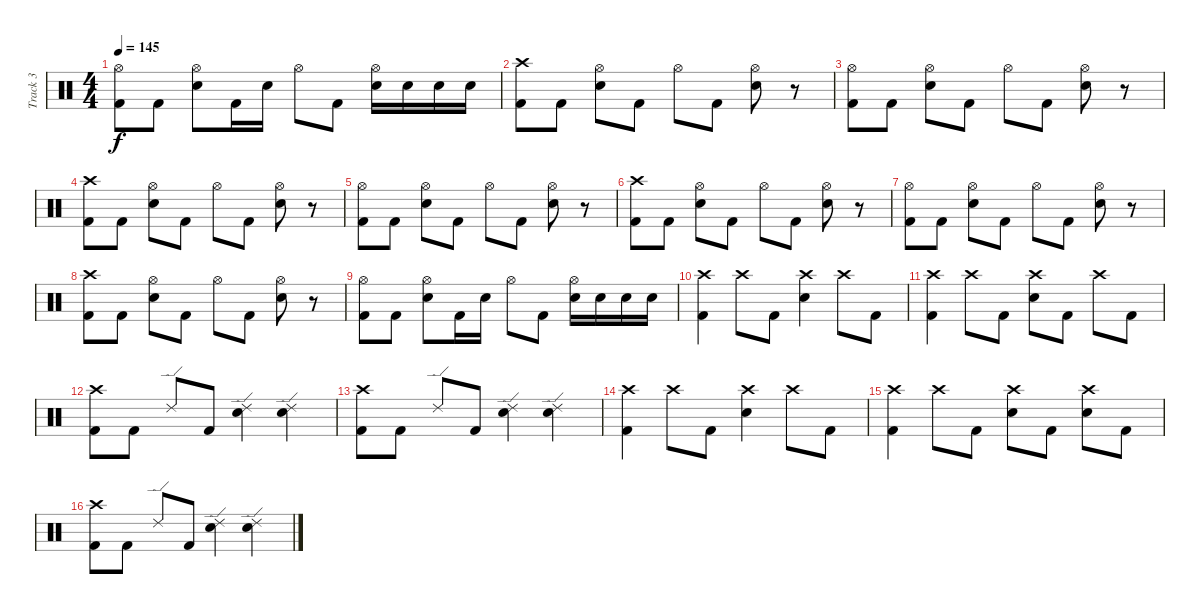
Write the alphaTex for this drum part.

\track ("Track 3" "Track 3") {instrument percussion}
\staff {score}
\articulation defaults
\ts (4 4)
\tempo 145
\clef neutral
\ks c
("Hi-Hat (open)" "Kick (hit) 2").8{dy f} "Kick (hit) 2".8 ("Hi-Hat (open)" "Electric Snare (hit)").8 "Kick (hit) 2".16 "Electric Snare (hit)".16 "Hi-Hat (open)".8 "Kick (hit) 2".8 ("Hi-Hat (open)" "Electric Snare (hit)").16 "Electric Snare (hit)".16 "Electric Snare (hit)".16 "Electric Snare (hit)".16 |
("Crash high (hit)" "Kick (hit) 2").8 "Kick (hit) 2".8 ("Electric Snare (hit)" "Hi-Hat (open)").8 "Kick (hit) 2".8 "Hi-Hat (open)".8 "Kick (hit) 2".8 ("Hi-Hat (open)" "Electric Snare (hit)").8 r.8 |
("Hi-Hat (open)" "Kick (hit) 2").8 "Kick (hit) 2".8 ("Hi-Hat (open)" "Electric Snare (hit)").8 "Kick (hit) 2".8 "Hi-Hat (open)".8 "Kick (hit) 2".8 ("Hi-Hat (open)" "Electric Snare (hit)").8 r.8 |
("Crash high (hit)" "Kick (hit) 2").8 "Kick (hit) 2".8 ("Electric Snare (hit)" "Hi-Hat (open)").8 "Kick (hit) 2".8 "Hi-Hat (open)".8 "Kick (hit) 2".8 ("Hi-Hat (open)" "Electric Snare (hit)").8 r.8 |
("Hi-Hat (open)" "Kick (hit) 2").8 "Kick (hit) 2".8 ("Hi-Hat (open)" "Electric Snare (hit)").8 "Kick (hit) 2".8 "Hi-Hat (open)".8 "Kick (hit) 2".8 ("Hi-Hat (open)" "Electric Snare (hit)").8 r.8 |
("Crash high (hit)" "Kick (hit) 2").8 "Kick (hit) 2".8 ("Electric Snare (hit)" "Hi-Hat (open)").8 "Kick (hit) 2".8 "Hi-Hat (open)".8 "Kick (hit) 2".8 ("Hi-Hat (open)" "Electric Snare (hit)").8 r.8 |
("Hi-Hat (open)" "Kick (hit) 2").8 "Kick (hit) 2".8 ("Hi-Hat (open)" "Electric Snare (hit)").8 "Kick (hit) 2".8 "Hi-Hat (open)".8 "Kick (hit) 2".8 ("Hi-Hat (open)" "Electric Snare (hit)").8 r.8 |
("Crash high (hit)" "Kick (hit) 2").8 "Kick (hit) 2".8 ("Electric Snare (hit)" "Hi-Hat (open)").8 "Kick (hit) 2".8 "Hi-Hat (open)".8 "Kick (hit) 2".8 ("Hi-Hat (open)" "Electric Snare (hit)").8 r.8 |
("Hi-Hat (open)" "Kick (hit) 2").8 "Kick (hit) 2".8 ("Hi-Hat (open)" "Electric Snare (hit)").8 "Kick (hit) 2".16 "Electric Snare (hit)".16 "Hi-Hat (open)".8 "Kick (hit) 2".8 ("Hi-Hat (open)" "Electric Snare (hit)").16 "Electric Snare (hit)".16 "Electric Snare (hit)".16 "Electric Snare (hit)".16 |
("Crash high (hit)" "Kick (hit) 2").4 "Crash high (hit)".8 "Kick (hit) 2".8 ("Crash high (hit)" "Electric Snare (hit)").4 "Crash high (hit)".8 "Kick (hit) 2".8 |
("Crash high (hit)" "Kick (hit) 2").4 "Crash high (hit)".8 "Kick (hit) 2".8 ("Crash high (hit)" "Electric Snare (hit)").8 "Kick (hit) 2".8 "Crash high (hit)".8 "Kick (hit) 2".8 |
("Crash high (hit)" "Kick (hit) 2").8 "Kick (hit) 2".8 "Ride (edge) 2".8 "Kick (hit) 2".8 ("Ride (edge) 2" "Electric Snare (hit)").4 ("Ride (edge) 2" "Electric Snare (hit)").4 |
("Crash high (hit)" "Kick (hit) 2").8 "Kick (hit) 2".8 "Ride (edge) 2".8 "Kick (hit) 2".8 ("Ride (edge) 2" "Electric Snare (hit)").4 ("Ride (edge) 2" "Electric Snare (hit)").4 |
("Crash high (hit)" "Kick (hit) 2").4 "Crash high (hit)".8 "Kick (hit) 2".8 ("Crash high (hit)" "Electric Snare (hit)").4 "Crash high (hit)".8 "Kick (hit) 2".8 |
("Crash high (hit)" "Kick (hit) 2").4 "Crash high (hit)".8 "Kick (hit) 2".8 ("Crash high (hit)" "Electric Snare (hit)").8 "Kick (hit) 2".8 ("Crash high (hit)" "Electric Snare (hit)").8 "Kick (hit) 2".8 |
("Crash high (hit)" "Kick (hit) 2").8 "Kick (hit) 2".8 "Ride (edge) 2".8 "Kick (hit) 2".8 ("Ride (edge) 2" "Electric Snare (hit)").4 ("Ride (edge) 2" "Electric Snare (hit)").4
